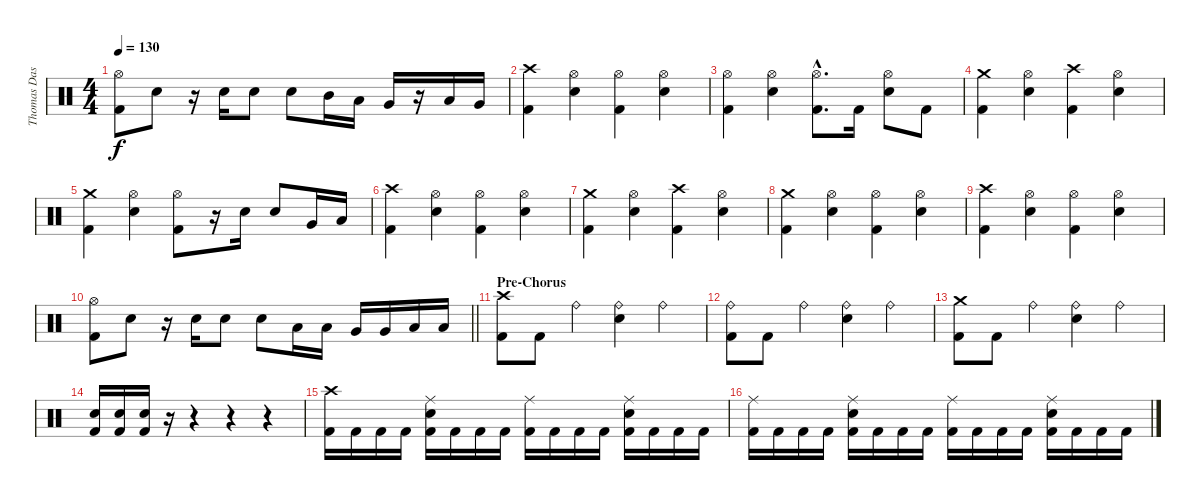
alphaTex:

\track ("Thomas Das Neves (Drums)" "Thomas Das") {instrument percussion}
\staff {score}
\articulation defaults
\ts (4 4)
\tempo 130
\clef neutral
\ks c
("Hi-Hat (open)" "Kick (hit) 2").8{dy f} "Snare (hit) 2".8 r.16 "Snare (hit) 2".16 "Snare (hit) 2".8 "Snare (hit) 2".8 "Mid Tom (hit)".16 "Low Tom (hit)".16 "Very Low Tom (hit)".16 r.16 "Low Tom (hit)".16 "Very Low Tom (hit)".16 |
("Crash high (hit)" "Kick (hit) 2").4 ("Hi-Hat (open)" "Snare (hit) 2").4 ("Hi-Hat (open)" "Kick (hit) 2").4 ("Hi-Hat (open)" "Snare (hit) 2").4 |
("Hi-Hat (open)" "Kick (hit) 2").4 ("Hi-Hat (open)" "Snare (hit) 2").4 ("Hi-Hat (open)"{hac} "Kick (hit) 2"{hac}).8{d} "Kick (hit) 2".16 ("Hi-Hat (open)" "Snare (hit) 2").8 "Kick (hit) 2".8 |
("Crash medium (hit)" "Kick (hit) 2").4 ("Hi-Hat (open)" "Snare (hit) 2").4 ("Crash high (hit)" "Kick (hit) 2").4 ("Hi-Hat (open)" "Snare (hit) 2").4 |
("Crash medium (hit)" "Kick (hit) 2").4 ("Hi-Hat (open)" "Snare (hit) 2").4 ("Hi-Hat (open)" "Kick (hit) 2").8 r.16 "Snare (hit) 2".16 "Snare (hit) 2".8 "Very Low Tom (hit)".16 "Low Floor Tom (hit)".16 |
("Crash high (hit)" "Kick (hit) 2").4 ("Hi-Hat (open)" "Snare (hit) 2").4 ("Hi-Hat (open)" "Kick (hit) 2").4 ("Hi-Hat (open)" "Snare (hit) 2").4 |
("Crash medium (hit)" "Kick (hit) 2").4 ("Hi-Hat (open)" "Snare (hit) 2").4 ("Crash high (hit)" "Kick (hit) 2").4 ("Hi-Hat (open)" "Snare (hit) 2").4 |
("Crash medium (hit)" "Kick (hit) 2").4 ("Hi-Hat (open)" "Snare (hit) 2").4 ("Hi-Hat (open)" "Kick (hit) 2").4 ("Hi-Hat (open)" "Snare (hit) 2").4 |
("Crash high (hit)" "Kick (hit) 2").4 ("Hi-Hat (open)" "Snare (hit) 2").4 ("Hi-Hat (open)" "Kick (hit) 2").4 ("Hi-Hat (open)" "Snare (hit) 2").4 |
\barLineRight lightlight
("Hi-Hat (open)" "Kick (hit) 2").8 "Snare (hit) 2".8 r.16 "Snare (hit) 2".16 "Snare (hit) 2".8 "Snare (hit) 2".8 "Low Tom (hit)".16 "Low Tom (hit)".16 "Very Low Tom (hit)".16 "Very Low Tom (hit)".16 "Low Floor Tom (hit)".16 "Low Floor Tom (hit)".16 |
\section ("" "Pre-Chorus")
("Crash high (hit)" "Kick (hit) 2").8 "Kick (hit) 2".8 "Ride (bell)".4 ("Ride (bell)" "Snare (hit) 2").4 "Ride (bell)".4 |
("Ride (bell)" "Kick (hit) 2").8 "Kick (hit) 2".8 "Ride (bell)".4 ("Ride (bell)" "Snare (hit) 2").4 "Ride (bell)".4 |
("Crash medium (hit)" "Kick (hit) 2").8 "Kick (hit) 2".8 "Ride (bell)".4 ("Ride (bell)" "Snare (hit) 2").4 "Ride (bell)".4 |
("Snare (hit) 2" "Kick (hit) 2").16 ("Snare (hit) 2" "Kick (hit) 2").16 ("Snare (hit) 2" "Kick (hit) 2").16 r.16 r.4 r.4 r.4 |
("Crash high (hit)" "Kick (hit) 2").16 "Kick (hit) 2".16 "Kick (hit) 2".16 "Kick (hit) 2".16 ("Ride (middle)" "Snare (hit) 2" "Kick (hit) 2").16 "Kick (hit) 2".16 "Kick (hit) 2".16 "Kick (hit) 2".16 ("Ride (middle)" "Kick (hit) 2").16 "Kick (hit) 2".16 "Kick (hit) 2".16 "Kick (hit) 2".16 ("Ride (middle)" "Snare (hit) 2" "Kick (hit) 2").16 "Kick (hit) 2".16 "Kick (hit) 2".16 "Kick (hit) 2".16 |
("Ride (middle)" "Kick (hit) 2").16 "Kick (hit) 2".16 "Kick (hit) 2".16 "Kick (hit) 2".16 ("Ride (middle)" "Snare (hit) 2" "Kick (hit) 2").16 "Kick (hit) 2".16 "Kick (hit) 2".16 "Kick (hit) 2".16 ("Ride (middle)" "Kick (hit) 2").16 "Kick (hit) 2".16 "Kick (hit) 2".16 "Kick (hit) 2".16 ("Ride (middle)" "Snare (hit) 2" "Kick (hit) 2").16 "Kick (hit) 2".16 "Kick (hit) 2".16 "Kick (hit) 2".16
